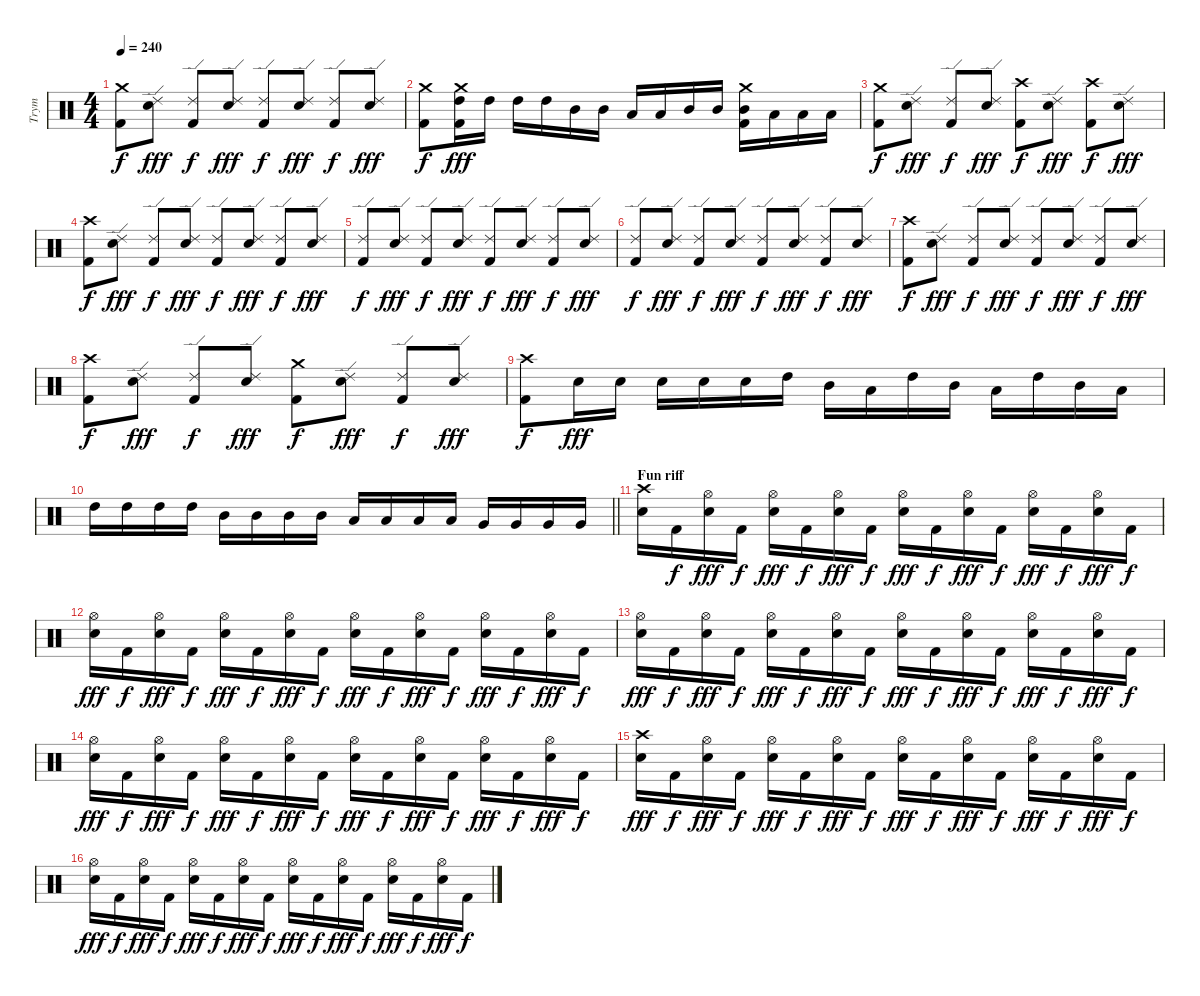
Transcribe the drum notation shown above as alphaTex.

\track ("Trym" "Trym") {instrument percussion}
\staff {score}
\articulation defaults
\ts (4 4)
\tempo 240
\clef neutral
\ks c
("Crash medium (hit)" "Kick (hit) 2").8{dy f} ("Ride (edge) 2" "Electric Snare (hit)").8{dy fff} ("Ride (edge) 2" "Kick (hit) 2").8{dy f} ("Ride (edge) 2" "Electric Snare (hit)").8{dy fff} ("Ride (edge) 2" "Kick (hit) 2").8{dy f} ("Ride (edge) 2" "Electric Snare (hit)").8{dy fff} ("Ride (edge) 2" "Kick (hit) 2").8{dy f} ("Ride (edge) 2" "Electric Snare (hit)").8{dy fff} |
("Crash medium (hit)" "Kick (hit) 2").8{dy f} ("Crash medium (hit)" "High Tom (hit)" "Kick (hit) 2").16{dy fff} "High Tom (hit)".16 "High Tom (hit)".16 "High Tom (hit)".16 "Mid Tom (hit)".16 "Mid Tom (hit)".16 "Low Tom (hit)".16 "Low Tom (hit)".16 "Mid Tom (hit)".16 "Mid Tom (hit)".16 ("Crash medium (hit)" "Mid Tom (hit)" "Kick (hit) 2").16 "Low Tom (hit)".16 "Low Tom (hit)".16 "Low Tom (hit)".16 |
("Crash medium (hit)" "Kick (hit) 2").8{dy f} ("Ride (edge) 2" "Electric Snare (hit)").8{dy fff} ("Ride (edge) 2" "Kick (hit) 2").8{dy f} ("Ride (edge) 2" "Electric Snare (hit)").8{dy fff} ("Crash high (hit)" "Kick (hit) 2").8{dy f} ("Ride (edge) 2" "Electric Snare (hit)").8{dy fff} ("Crash high (hit)" "Kick (hit) 2").8{dy f} ("Ride (edge) 2" "Electric Snare (hit)").8{dy fff} |
("Crash high (hit)" "Kick (hit) 2").8{dy f} ("Ride (edge) 2" "Electric Snare (hit)").8{dy fff} ("Ride (edge) 2" "Kick (hit) 2").8{dy f} ("Ride (edge) 2" "Electric Snare (hit)").8{dy fff} ("Ride (edge) 2" "Kick (hit) 2").8{dy f} ("Ride (edge) 2" "Electric Snare (hit)").8{dy fff} ("Ride (edge) 2" "Kick (hit) 2").8{dy f} ("Ride (edge) 2" "Electric Snare (hit)").8{dy fff} |
("Ride (edge) 2" "Kick (hit) 2").8{dy f} ("Ride (edge) 2" "Electric Snare (hit)").8{dy fff} ("Ride (edge) 2" "Kick (hit) 2").8{dy f} ("Ride (edge) 2" "Electric Snare (hit)").8{dy fff} ("Ride (edge) 2" "Kick (hit) 2").8{dy f} ("Ride (edge) 2" "Electric Snare (hit)").8{dy fff} ("Ride (edge) 2" "Kick (hit) 2").8{dy f} ("Ride (edge) 2" "Electric Snare (hit)").8{dy fff} |
("Ride (edge) 2" "Kick (hit) 2").8{dy f} ("Ride (edge) 2" "Electric Snare (hit)").8{dy fff} ("Ride (edge) 2" "Kick (hit) 2").8{dy f} ("Ride (edge) 2" "Electric Snare (hit)").8{dy fff} ("Ride (edge) 2" "Kick (hit) 2").8{dy f} ("Ride (edge) 2" "Electric Snare (hit)").8{dy fff} ("Ride (edge) 2" "Kick (hit) 2").8{dy f} ("Ride (edge) 2" "Electric Snare (hit)").8{dy fff} |
("Crash high (hit)" "Kick (hit) 2").8{dy f} ("Ride (edge) 2" "Electric Snare (hit)").8{dy fff} ("Ride (edge) 2" "Kick (hit) 2").8{dy f} ("Ride (edge) 2" "Electric Snare (hit)").8{dy fff} ("Ride (edge) 2" "Kick (hit) 2").8{dy f} ("Ride (edge) 2" "Electric Snare (hit)").8{dy fff} ("Ride (edge) 2" "Kick (hit) 2").8{dy f} ("Ride (edge) 2" "Electric Snare (hit)").8{dy fff} |
("Crash high (hit)" "Kick (hit) 2").8{dy f} ("Ride (edge) 2" "Electric Snare (hit)").8{dy fff} ("Ride (edge) 2" "Kick (hit) 2").8{dy f} ("Ride (edge) 2" "Electric Snare (hit)").8{dy fff} ("Crash medium (hit)" "Kick (hit) 2").8{dy f} ("Ride (edge) 2" "Electric Snare (hit)").8{dy fff} ("Ride (edge) 2" "Kick (hit) 2").8{dy f} ("Ride (edge) 2" "Electric Snare (hit)").8{dy fff} |
("Crash high (hit)" "Kick (hit) 2").8{dy f} "Electric Snare (hit)".16{dy fff} "Electric Snare (hit)".16 "Electric Snare (hit)".16 "Electric Snare (hit)".16 "Electric Snare (hit)".16 "High Tom (hit)".16 "Mid Tom (hit)".16 "Low Tom (hit)".16 "High Tom (hit)".16 "Mid Tom (hit)".16 "Low Tom (hit)".16 "High Tom (hit)".16 "Mid Tom (hit)".16 "Low Tom (hit)".16 |
\barLineRight lightlight "High Tom (hit)".16 "High Tom (hit)".16 "High Tom (hit)".16 "High Tom (hit)".16 "Mid Tom (hit)".16 "Mid Tom (hit)".16 "Mid Tom (hit)".16 "Mid Tom (hit)".16 "Low Tom (hit)".16 "Low Tom (hit)".16 "Low Tom (hit)".16 "Low Tom (hit)".16 "Very Low Tom (hit)".16 "Very Low Tom (hit)".16 "Very Low Tom (hit)".16 "Very Low Tom (hit)".16
|
\section ("" "Fun riff")
("Crash high (hit)" "Electric Snare (hit)").16 "Kick (hit) 2".16{dy f} ("Hi-Hat (open)" "Electric Snare (hit)").16{dy fff} "Kick (hit) 2".16{dy f} ("Hi-Hat (open)" "Electric Snare (hit)").16{dy fff} "Kick (hit) 2".16{dy f} ("Hi-Hat (open)" "Electric Snare (hit)").16{dy fff} "Kick (hit) 2".16{dy f} ("Hi-Hat (open)" "Electric Snare (hit)").16{dy fff} "Kick (hit) 2".16{dy f} ("Hi-Hat (open)" "Electric Snare (hit)").16{dy fff} "Kick (hit) 2".16{dy f} ("Hi-Hat (open)" "Electric Snare (hit)").16{dy fff} "Kick (hit) 2".16{dy f} ("Hi-Hat (open)" "Electric Snare (hit)").16{dy fff} "Kick (hit) 2".16{dy f} |
("Hi-Hat (open)" "Electric Snare (hit)").16{dy fff} "Kick (hit) 2".16{dy f} ("Hi-Hat (open)" "Electric Snare (hit)").16{dy fff} "Kick (hit) 2".16{dy f} ("Hi-Hat (open)" "Electric Snare (hit)").16{dy fff} "Kick (hit) 2".16{dy f} ("Hi-Hat (open)" "Electric Snare (hit)").16{dy fff} "Kick (hit) 2".16{dy f} ("Hi-Hat (open)" "Electric Snare (hit)").16{dy fff} "Kick (hit) 2".16{dy f} ("Hi-Hat (open)" "Electric Snare (hit)").16{dy fff} "Kick (hit) 2".16{dy f} ("Hi-Hat (open)" "Electric Snare (hit)").16{dy fff} "Kick (hit) 2".16{dy f} ("Hi-Hat (open)" "Electric Snare (hit)").16{dy fff} "Kick (hit) 2".16{dy f} |
("Hi-Hat (open)" "Electric Snare (hit)").16{dy fff} "Kick (hit) 2".16{dy f} ("Hi-Hat (open)" "Electric Snare (hit)").16{dy fff} "Kick (hit) 2".16{dy f} ("Hi-Hat (open)" "Electric Snare (hit)").16{dy fff} "Kick (hit) 2".16{dy f} ("Hi-Hat (open)" "Electric Snare (hit)").16{dy fff} "Kick (hit) 2".16{dy f} ("Hi-Hat (open)" "Electric Snare (hit)").16{dy fff} "Kick (hit) 2".16{dy f} ("Hi-Hat (open)" "Electric Snare (hit)").16{dy fff} "Kick (hit) 2".16{dy f} ("Hi-Hat (open)" "Electric Snare (hit)").16{dy fff} "Kick (hit) 2".16{dy f} ("Hi-Hat (open)" "Electric Snare (hit)").16{dy fff} "Kick (hit) 2".16{dy f} |
("Hi-Hat (open)" "Electric Snare (hit)").16{dy fff} "Kick (hit) 2".16{dy f} ("Hi-Hat (open)" "Electric Snare (hit)").16{dy fff} "Kick (hit) 2".16{dy f} ("Hi-Hat (open)" "Electric Snare (hit)").16{dy fff} "Kick (hit) 2".16{dy f} ("Hi-Hat (open)" "Electric Snare (hit)").16{dy fff} "Kick (hit) 2".16{dy f} ("Hi-Hat (open)" "Electric Snare (hit)").16{dy fff} "Kick (hit) 2".16{dy f} ("Hi-Hat (open)" "Electric Snare (hit)").16{dy fff} "Kick (hit) 2".16{dy f} ("Hi-Hat (open)" "Electric Snare (hit)").16{dy fff} "Kick (hit) 2".16{dy f} ("Hi-Hat (open)" "Electric Snare (hit)").16{dy fff} "Kick (hit) 2".16{dy f} |
("Crash high (hit)" "Electric Snare (hit)").16{dy fff} "Kick (hit) 2".16{dy f} ("Hi-Hat (open)" "Electric Snare (hit)").16{dy fff} "Kick (hit) 2".16{dy f} ("Hi-Hat (open)" "Electric Snare (hit)").16{dy fff} "Kick (hit) 2".16{dy f} ("Hi-Hat (open)" "Electric Snare (hit)").16{dy fff} "Kick (hit) 2".16{dy f} ("Hi-Hat (open)" "Electric Snare (hit)").16{dy fff} "Kick (hit) 2".16{dy f} ("Hi-Hat (open)" "Electric Snare (hit)").16{dy fff} "Kick (hit) 2".16{dy f} ("Hi-Hat (open)" "Electric Snare (hit)").16{dy fff} "Kick (hit) 2".16{dy f} ("Hi-Hat (open)" "Electric Snare (hit)").16{dy fff} "Kick (hit) 2".16{dy f} |
("Hi-Hat (open)" "Electric Snare (hit)").16{dy fff} "Kick (hit) 2".16{dy f} ("Hi-Hat (open)" "Electric Snare (hit)").16{dy fff} "Kick (hit) 2".16{dy f} ("Hi-Hat (open)" "Electric Snare (hit)").16{dy fff} "Kick (hit) 2".16{dy f} ("Hi-Hat (open)" "Electric Snare (hit)").16{dy fff} "Kick (hit) 2".16{dy f} ("Hi-Hat (open)" "Electric Snare (hit)").16{dy fff} "Kick (hit) 2".16{dy f} ("Hi-Hat (open)" "Electric Snare (hit)").16{dy fff} "Kick (hit) 2".16{dy f} ("Hi-Hat (open)" "Electric Snare (hit)").16{dy fff} "Kick (hit) 2".16{dy f} ("Hi-Hat (open)" "Electric Snare (hit)").16{dy fff} "Kick (hit) 2".16{dy f}
